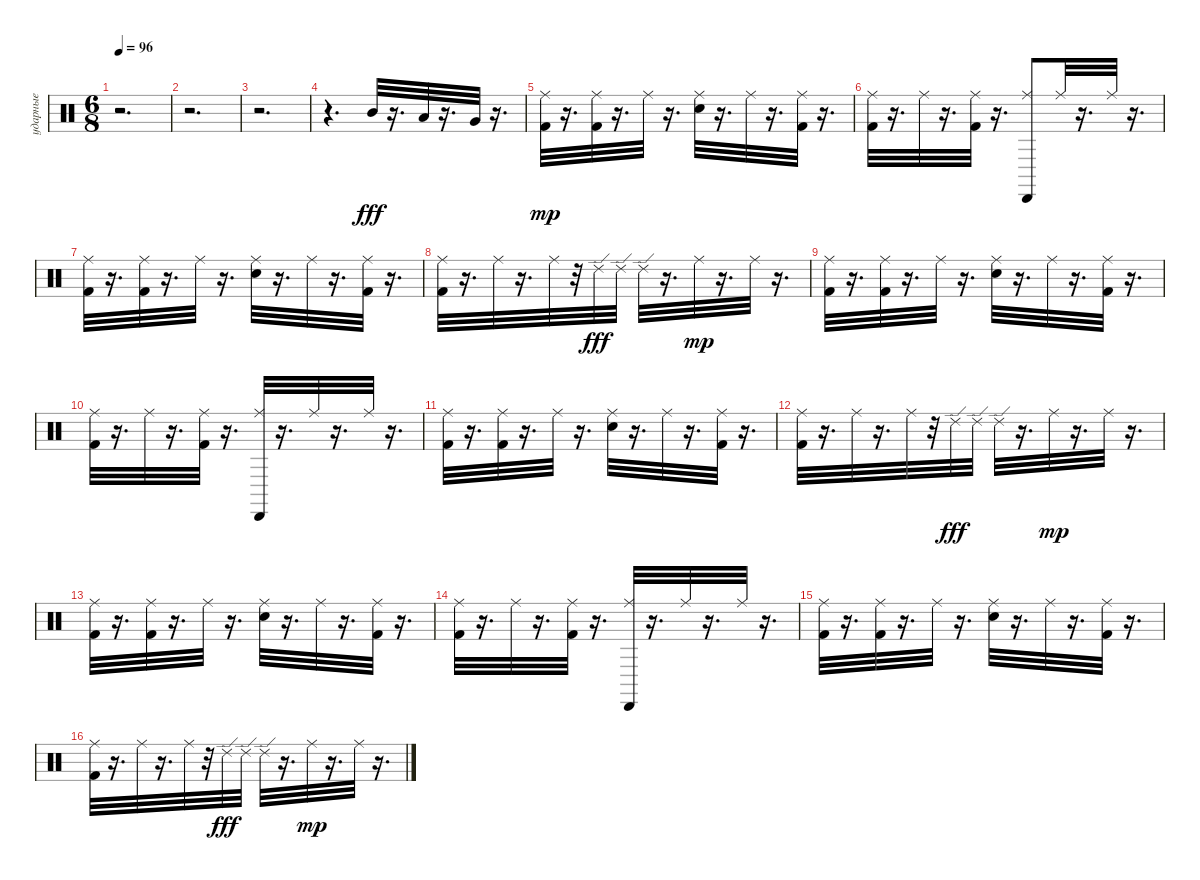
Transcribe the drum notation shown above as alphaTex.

\track ("ударные" "ударные") {instrument percussion}
\staff {score}
\articulation defaults
\ts (6 8)
\tempo 96
\clef neutral
\ks c
r.2{d dy fff} |
r.2{d} |
r.2{d} |
r.4{d} "Mid Tom (hit)".32{balance 12} r.16{d} "Low Tom (hit)".32{balance 8} r.16{d} "Very Low Tom (hit)".32{balance 4} r.16{d} |
("Kick (hit) 2" "Ride (middle)").32{dy mp balance 8} r.16{d} ("Kick (hit) 2" "Ride (middle)").32 r.16{d} "Ride (middle)".32 r.16{d} ("Snare (hit) 2" "Ride (middle)").32 r.16{d} "Ride (middle)".32 r.16{d} ("Kick (hit) 2" "Ride (middle)").32 r.16{d} |
("Kick (hit) 2" "Ride (middle)").32 r.16{d} "Ride (middle)".32 r.16{d} ("Kick (hit) 2" "Ride (middle)").32 r.16{d} ("Cabasa (hit)" "Ride (middle)").8 "Ride (middle)".32 r.16{d} "Ride (middle)".32 r.16{d} |
("Ride (middle)" "Kick (hit) 2").32 r.16{d} ("Kick (hit) 2" "Ride (middle)").32 r.16{d} "Ride (middle)".32 r.16{d} ("Snare (hit) 2" "Ride (middle)").32 r.16{d} "Ride (middle)".32 r.16{d} ("Kick (hit) 2" "Ride (middle)").32 r.16{d} |
("Kick (hit) 2" "Ride (middle)").32 r.16{d} "Ride (middle)".32 r.16{d} "Ride (middle)".32 r.32 "Ride (edge) 2".32{dy fff} "Ride (edge) 2".32 "Ride (edge) 2".32 r.16{d} "Ride (middle)".32{dy mp} r.16{d} "Ride (middle)".32 r.16{d} |
("Kick (hit) 2" "Ride (middle)").32 r.16{d} ("Kick (hit) 2" "Ride (middle)").32 r.16{d} "Ride (middle)".32 r.16{d} ("Snare (hit) 2" "Ride (middle)").32 r.16{d} "Ride (middle)".32 r.16{d} ("Kick (hit) 2" "Ride (middle)").32 r.16{d} |
("Kick (hit) 2" "Ride (middle)").32 r.16{d} "Ride (middle)".32 r.16{d} ("Kick (hit) 2" "Ride (middle)").32 r.16{d} ("Cabasa (hit)" "Ride (middle)").32 r.16{d} "Ride (middle)".32 r.16{d} "Ride (middle)".32 r.16{d} |
("Kick (hit) 2" "Ride (middle)").32 r.16{d} ("Kick (hit) 2" "Ride (middle)").32 r.16{d} "Ride (middle)".32 r.16{d} ("Snare (hit) 2" "Ride (middle)").32 r.16{d} "Ride (middle)".32 r.16{d} ("Kick (hit) 2" "Ride (middle)").32 r.16{d} |
("Kick (hit) 2" "Ride (middle)").32 r.16{d} "Ride (middle)".32 r.16{d} "Ride (middle)".32 r.32 "Ride (edge) 2".32{dy fff} "Ride (edge) 2".32 "Ride (edge) 2".32 r.16{d} "Ride (middle)".32{dy mp} r.16{d} "Ride (middle)".32 r.16{d} |
("Kick (hit) 2" "Ride (middle)").32 r.16{d} ("Kick (hit) 2" "Ride (middle)").32 r.16{d} "Ride (middle)".32 r.16{d} ("Snare (hit) 2" "Ride (middle)").32 r.16{d} "Ride (middle)".32 r.16{d} ("Kick (hit) 2" "Ride (middle)").32 r.16{d} |
("Kick (hit) 2" "Ride (middle)").32 r.16{d} "Ride (middle)".32 r.16{d} ("Kick (hit) 2" "Ride (middle)").32 r.16{d} ("Cabasa (hit)" "Ride (middle)").32 r.16{d} "Ride (middle)".32 r.16{d} "Ride (middle)".32 r.16{d} |
("Kick (hit) 2" "Ride (middle)").32 r.16{d} ("Kick (hit) 2" "Ride (middle)").32 r.16{d} "Ride (middle)".32 r.16{d} ("Snare (hit) 2" "Ride (middle)").32 r.16{d} "Ride (middle)".32 r.16{d} ("Kick (hit) 2" "Ride (middle)").32 r.16{d} |
("Kick (hit) 2" "Ride (middle)").32 r.16{d} "Ride (middle)".32 r.16{d} "Ride (middle)".32 r.32 "Ride (edge) 2".32{dy fff} "Ride (edge) 2".32 "Ride (edge) 2".32 r.16{d} "Ride (middle)".32{dy mp} r.16{d} "Ride (middle)".32 r.16{d}
